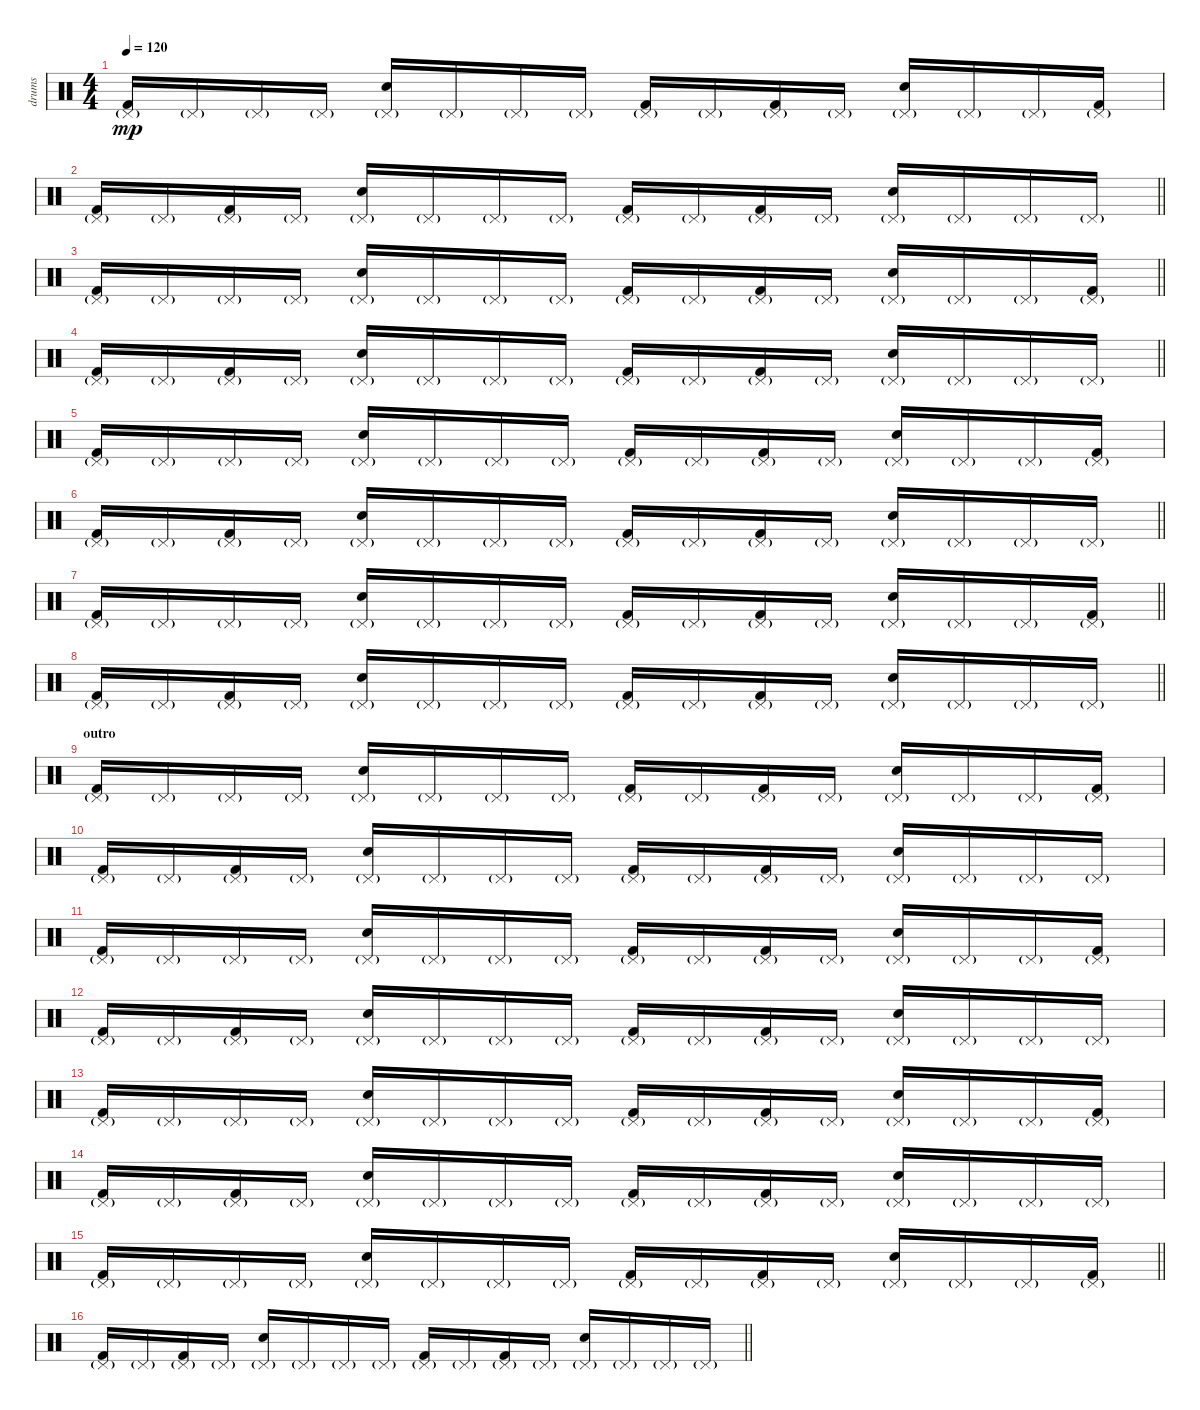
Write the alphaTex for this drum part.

\track ("drums" "drums") {instrument percussion}
\staff {score}
\articulation defaults
\ts (4 4)
\tempo 120
\clef neutral
\ks c
("Kick (hit) 2" "Pedal Hi-Hat (hit)"{g}).16{dy mp} "Pedal Hi-Hat (hit)"{g}.16 "Pedal Hi-Hat (hit)"{g}.16 "Pedal Hi-Hat (hit)"{g}.16 ("Hand Clap (hit)" "Pedal Hi-Hat (hit)"{g}).16 "Pedal Hi-Hat (hit)"{g}.16 "Pedal Hi-Hat (hit)"{g}.16 "Pedal Hi-Hat (hit)"{g}.16 ("Kick (hit) 2" "Pedal Hi-Hat (hit)"{g}).16 "Pedal Hi-Hat (hit)"{g}.16 ("Kick (hit) 2" "Pedal Hi-Hat (hit)"{g}).16 "Pedal Hi-Hat (hit)"{g}.16 ("Hand Clap (hit)" "Pedal Hi-Hat (hit)"{g}).16 "Pedal Hi-Hat (hit)"{g}.16 "Pedal Hi-Hat (hit)"{g}.16 ("Kick (hit) 2" "Pedal Hi-Hat (hit)"{g}).16 |
\barLineRight lightlight
("Kick (hit) 2" "Pedal Hi-Hat (hit)"{g}).16 "Pedal Hi-Hat (hit)"{g}.16 ("Kick (hit) 2" "Pedal Hi-Hat (hit)"{g}).16 "Pedal Hi-Hat (hit)"{g}.16 ("Hand Clap (hit)" "Pedal Hi-Hat (hit)"{g}).16 "Pedal Hi-Hat (hit)"{g}.16 "Pedal Hi-Hat (hit)"{g}.16 "Pedal Hi-Hat (hit)"{g}.16 ("Kick (hit) 2" "Pedal Hi-Hat (hit)"{g}).16 "Pedal Hi-Hat (hit)"{g}.16 ("Kick (hit) 2" "Pedal Hi-Hat (hit)"{g}).16 "Pedal Hi-Hat (hit)"{g}.16 ("Hand Clap (hit)" "Pedal Hi-Hat (hit)"{g}).16 "Pedal Hi-Hat (hit)"{g}.16 "Pedal Hi-Hat (hit)"{g}.16 "Pedal Hi-Hat (hit)"{g}.16 |
\barLineRight lightlight
("Kick (hit) 2" "Pedal Hi-Hat (hit)"{g}).16 "Pedal Hi-Hat (hit)"{g}.16 "Pedal Hi-Hat (hit)"{g}.16 "Pedal Hi-Hat (hit)"{g}.16 ("Hand Clap (hit)" "Pedal Hi-Hat (hit)"{g}).16 "Pedal Hi-Hat (hit)"{g}.16 "Pedal Hi-Hat (hit)"{g}.16 "Pedal Hi-Hat (hit)"{g}.16 ("Kick (hit) 2" "Pedal Hi-Hat (hit)"{g}).16 "Pedal Hi-Hat (hit)"{g}.16 ("Kick (hit) 2" "Pedal Hi-Hat (hit)"{g}).16 "Pedal Hi-Hat (hit)"{g}.16 ("Hand Clap (hit)" "Pedal Hi-Hat (hit)"{g}).16 "Pedal Hi-Hat (hit)"{g}.16 "Pedal Hi-Hat (hit)"{g}.16 ("Kick (hit) 2" "Pedal Hi-Hat (hit)"{g}).16 |
\barLineRight lightlight
("Kick (hit) 2" "Pedal Hi-Hat (hit)"{g}).16 "Pedal Hi-Hat (hit)"{g}.16 ("Kick (hit) 2" "Pedal Hi-Hat (hit)"{g}).16 "Pedal Hi-Hat (hit)"{g}.16 ("Hand Clap (hit)" "Pedal Hi-Hat (hit)"{g}).16 "Pedal Hi-Hat (hit)"{g}.16 "Pedal Hi-Hat (hit)"{g}.16 "Pedal Hi-Hat (hit)"{g}.16 ("Kick (hit) 2" "Pedal Hi-Hat (hit)"{g}).16 "Pedal Hi-Hat (hit)"{g}.16 ("Kick (hit) 2" "Pedal Hi-Hat (hit)"{g}).16 "Pedal Hi-Hat (hit)"{g}.16 ("Hand Clap (hit)" "Pedal Hi-Hat (hit)"{g}).16 "Pedal Hi-Hat (hit)"{g}.16 "Pedal Hi-Hat (hit)"{g}.16 "Pedal Hi-Hat (hit)"{g}.16 |
("Kick (hit) 2" "Pedal Hi-Hat (hit)"{g}).16 "Pedal Hi-Hat (hit)"{g}.16 "Pedal Hi-Hat (hit)"{g}.16 "Pedal Hi-Hat (hit)"{g}.16 ("Hand Clap (hit)" "Pedal Hi-Hat (hit)"{g}).16 "Pedal Hi-Hat (hit)"{g}.16 "Pedal Hi-Hat (hit)"{g}.16 "Pedal Hi-Hat (hit)"{g}.16 ("Kick (hit) 2" "Pedal Hi-Hat (hit)"{g}).16 "Pedal Hi-Hat (hit)"{g}.16 ("Kick (hit) 2" "Pedal Hi-Hat (hit)"{g}).16 "Pedal Hi-Hat (hit)"{g}.16 ("Hand Clap (hit)" "Pedal Hi-Hat (hit)"{g}).16 "Pedal Hi-Hat (hit)"{g}.16 "Pedal Hi-Hat (hit)"{g}.16 ("Kick (hit) 2" "Pedal Hi-Hat (hit)"{g}).16 |
\barLineRight lightlight
("Kick (hit) 2" "Pedal Hi-Hat (hit)"{g}).16 "Pedal Hi-Hat (hit)"{g}.16 ("Kick (hit) 2" "Pedal Hi-Hat (hit)"{g}).16 "Pedal Hi-Hat (hit)"{g}.16 ("Hand Clap (hit)" "Pedal Hi-Hat (hit)"{g}).16 "Pedal Hi-Hat (hit)"{g}.16 "Pedal Hi-Hat (hit)"{g}.16 "Pedal Hi-Hat (hit)"{g}.16 ("Kick (hit) 2" "Pedal Hi-Hat (hit)"{g}).16 "Pedal Hi-Hat (hit)"{g}.16 ("Kick (hit) 2" "Pedal Hi-Hat (hit)"{g}).16 "Pedal Hi-Hat (hit)"{g}.16 ("Hand Clap (hit)" "Pedal Hi-Hat (hit)"{g}).16 "Pedal Hi-Hat (hit)"{g}.16 "Pedal Hi-Hat (hit)"{g}.16 "Pedal Hi-Hat (hit)"{g}.16 |
\barLineRight lightlight
("Kick (hit) 2" "Pedal Hi-Hat (hit)"{g}).16 "Pedal Hi-Hat (hit)"{g}.16 "Pedal Hi-Hat (hit)"{g}.16 "Pedal Hi-Hat (hit)"{g}.16 ("Hand Clap (hit)" "Pedal Hi-Hat (hit)"{g}).16 "Pedal Hi-Hat (hit)"{g}.16 "Pedal Hi-Hat (hit)"{g}.16 "Pedal Hi-Hat (hit)"{g}.16 ("Kick (hit) 2" "Pedal Hi-Hat (hit)"{g}).16 "Pedal Hi-Hat (hit)"{g}.16 ("Kick (hit) 2" "Pedal Hi-Hat (hit)"{g}).16 "Pedal Hi-Hat (hit)"{g}.16 ("Hand Clap (hit)" "Pedal Hi-Hat (hit)"{g}).16 "Pedal Hi-Hat (hit)"{g}.16 "Pedal Hi-Hat (hit)"{g}.16 ("Kick (hit) 2" "Pedal Hi-Hat (hit)"{g}).16 |
\barLineRight lightlight
("Kick (hit) 2" "Pedal Hi-Hat (hit)"{g}).16 "Pedal Hi-Hat (hit)"{g}.16 ("Kick (hit) 2" "Pedal Hi-Hat (hit)"{g}).16 "Pedal Hi-Hat (hit)"{g}.16 ("Hand Clap (hit)" "Pedal Hi-Hat (hit)"{g}).16 "Pedal Hi-Hat (hit)"{g}.16 "Pedal Hi-Hat (hit)"{g}.16 "Pedal Hi-Hat (hit)"{g}.16 ("Kick (hit) 2" "Pedal Hi-Hat (hit)"{g}).16 "Pedal Hi-Hat (hit)"{g}.16 ("Kick (hit) 2" "Pedal Hi-Hat (hit)"{g}).16 "Pedal Hi-Hat (hit)"{g}.16 ("Hand Clap (hit)" "Pedal Hi-Hat (hit)"{g}).16 "Pedal Hi-Hat (hit)"{g}.16 "Pedal Hi-Hat (hit)"{g}.16 "Pedal Hi-Hat (hit)"{g}.16 |
\section ("" "outro")
("Kick (hit) 2" "Pedal Hi-Hat (hit)"{g}).16 "Pedal Hi-Hat (hit)"{g}.16 "Pedal Hi-Hat (hit)"{g}.16 "Pedal Hi-Hat (hit)"{g}.16 ("Hand Clap (hit)" "Pedal Hi-Hat (hit)"{g}).16 "Pedal Hi-Hat (hit)"{g}.16 "Pedal Hi-Hat (hit)"{g}.16 "Pedal Hi-Hat (hit)"{g}.16 ("Kick (hit) 2" "Pedal Hi-Hat (hit)"{g}).16 "Pedal Hi-Hat (hit)"{g}.16 ("Kick (hit) 2" "Pedal Hi-Hat (hit)"{g}).16 "Pedal Hi-Hat (hit)"{g}.16 ("Hand Clap (hit)" "Pedal Hi-Hat (hit)"{g}).16 "Pedal Hi-Hat (hit)"{g}.16 "Pedal Hi-Hat (hit)"{g}.16 ("Kick (hit) 2" "Pedal Hi-Hat (hit)"{g}).16 |
("Kick (hit) 2" "Pedal Hi-Hat (hit)"{g}).16 "Pedal Hi-Hat (hit)"{g}.16 ("Kick (hit) 2" "Pedal Hi-Hat (hit)"{g}).16 "Pedal Hi-Hat (hit)"{g}.16 ("Hand Clap (hit)" "Pedal Hi-Hat (hit)"{g}).16 "Pedal Hi-Hat (hit)"{g}.16 "Pedal Hi-Hat (hit)"{g}.16 "Pedal Hi-Hat (hit)"{g}.16 ("Kick (hit) 2" "Pedal Hi-Hat (hit)"{g}).16 "Pedal Hi-Hat (hit)"{g}.16 ("Kick (hit) 2" "Pedal Hi-Hat (hit)"{g}).16 "Pedal Hi-Hat (hit)"{g}.16 ("Hand Clap (hit)" "Pedal Hi-Hat (hit)"{g}).16 "Pedal Hi-Hat (hit)"{g}.16 "Pedal Hi-Hat (hit)"{g}.16 "Pedal Hi-Hat (hit)"{g}.16 |
("Kick (hit) 2" "Pedal Hi-Hat (hit)"{g}).16 "Pedal Hi-Hat (hit)"{g}.16 "Pedal Hi-Hat (hit)"{g}.16 "Pedal Hi-Hat (hit)"{g}.16 ("Hand Clap (hit)" "Pedal Hi-Hat (hit)"{g}).16 "Pedal Hi-Hat (hit)"{g}.16 "Pedal Hi-Hat (hit)"{g}.16 "Pedal Hi-Hat (hit)"{g}.16 ("Kick (hit) 2" "Pedal Hi-Hat (hit)"{g}).16 "Pedal Hi-Hat (hit)"{g}.16 ("Kick (hit) 2" "Pedal Hi-Hat (hit)"{g}).16 "Pedal Hi-Hat (hit)"{g}.16 ("Hand Clap (hit)" "Pedal Hi-Hat (hit)"{g}).16 "Pedal Hi-Hat (hit)"{g}.16 "Pedal Hi-Hat (hit)"{g}.16 ("Kick (hit) 2" "Pedal Hi-Hat (hit)"{g}).16 |
("Kick (hit) 2" "Pedal Hi-Hat (hit)"{g}).16 "Pedal Hi-Hat (hit)"{g}.16 ("Kick (hit) 2" "Pedal Hi-Hat (hit)"{g}).16 "Pedal Hi-Hat (hit)"{g}.16 ("Hand Clap (hit)" "Pedal Hi-Hat (hit)"{g}).16 "Pedal Hi-Hat (hit)"{g}.16 "Pedal Hi-Hat (hit)"{g}.16 "Pedal Hi-Hat (hit)"{g}.16 ("Kick (hit) 2" "Pedal Hi-Hat (hit)"{g}).16 "Pedal Hi-Hat (hit)"{g}.16 ("Kick (hit) 2" "Pedal Hi-Hat (hit)"{g}).16 "Pedal Hi-Hat (hit)"{g}.16 ("Hand Clap (hit)" "Pedal Hi-Hat (hit)"{g}).16 "Pedal Hi-Hat (hit)"{g}.16 "Pedal Hi-Hat (hit)"{g}.16 "Pedal Hi-Hat (hit)"{g}.16 |
("Kick (hit) 2" "Pedal Hi-Hat (hit)"{g}).16 "Pedal Hi-Hat (hit)"{g}.16 "Pedal Hi-Hat (hit)"{g}.16 "Pedal Hi-Hat (hit)"{g}.16 ("Hand Clap (hit)" "Pedal Hi-Hat (hit)"{g}).16 "Pedal Hi-Hat (hit)"{g}.16 "Pedal Hi-Hat (hit)"{g}.16 "Pedal Hi-Hat (hit)"{g}.16 ("Kick (hit) 2" "Pedal Hi-Hat (hit)"{g}).16 "Pedal Hi-Hat (hit)"{g}.16 ("Kick (hit) 2" "Pedal Hi-Hat (hit)"{g}).16 "Pedal Hi-Hat (hit)"{g}.16 ("Hand Clap (hit)" "Pedal Hi-Hat (hit)"{g}).16 "Pedal Hi-Hat (hit)"{g}.16 "Pedal Hi-Hat (hit)"{g}.16 ("Kick (hit) 2" "Pedal Hi-Hat (hit)"{g}).16 |
("Kick (hit) 2" "Pedal Hi-Hat (hit)"{g}).16 "Pedal Hi-Hat (hit)"{g}.16 ("Kick (hit) 2" "Pedal Hi-Hat (hit)"{g}).16 "Pedal Hi-Hat (hit)"{g}.16 ("Hand Clap (hit)" "Pedal Hi-Hat (hit)"{g}).16 "Pedal Hi-Hat (hit)"{g}.16 "Pedal Hi-Hat (hit)"{g}.16 "Pedal Hi-Hat (hit)"{g}.16 ("Kick (hit) 2" "Pedal Hi-Hat (hit)"{g}).16 "Pedal Hi-Hat (hit)"{g}.16 ("Kick (hit) 2" "Pedal Hi-Hat (hit)"{g}).16 "Pedal Hi-Hat (hit)"{g}.16 ("Hand Clap (hit)" "Pedal Hi-Hat (hit)"{g}).16 "Pedal Hi-Hat (hit)"{g}.16 "Pedal Hi-Hat (hit)"{g}.16 "Pedal Hi-Hat (hit)"{g}.16 |
\barLineRight lightlight
("Kick (hit) 2" "Pedal Hi-Hat (hit)"{g}).16 "Pedal Hi-Hat (hit)"{g}.16 "Pedal Hi-Hat (hit)"{g}.16 "Pedal Hi-Hat (hit)"{g}.16 ("Hand Clap (hit)" "Pedal Hi-Hat (hit)"{g}).16 "Pedal Hi-Hat (hit)"{g}.16 "Pedal Hi-Hat (hit)"{g}.16 "Pedal Hi-Hat (hit)"{g}.16 ("Kick (hit) 2" "Pedal Hi-Hat (hit)"{g}).16 "Pedal Hi-Hat (hit)"{g}.16 ("Kick (hit) 2" "Pedal Hi-Hat (hit)"{g}).16 "Pedal Hi-Hat (hit)"{g}.16 ("Hand Clap (hit)" "Pedal Hi-Hat (hit)"{g}).16 "Pedal Hi-Hat (hit)"{g}.16 "Pedal Hi-Hat (hit)"{g}.16 ("Kick (hit) 2" "Pedal Hi-Hat (hit)"{g}).16 |
\barLineRight lightlight
("Kick (hit) 2" "Pedal Hi-Hat (hit)"{g}).16 "Pedal Hi-Hat (hit)"{g}.16 ("Kick (hit) 2" "Pedal Hi-Hat (hit)"{g}).16 "Pedal Hi-Hat (hit)"{g}.16 ("Hand Clap (hit)" "Pedal Hi-Hat (hit)"{g}).16 "Pedal Hi-Hat (hit)"{g}.16 "Pedal Hi-Hat (hit)"{g}.16 "Pedal Hi-Hat (hit)"{g}.16 ("Kick (hit) 2" "Pedal Hi-Hat (hit)"{g}).16 "Pedal Hi-Hat (hit)"{g}.16 ("Kick (hit) 2" "Pedal Hi-Hat (hit)"{g}).16 "Pedal Hi-Hat (hit)"{g}.16 ("Hand Clap (hit)" "Pedal Hi-Hat (hit)"{g}).16 "Pedal Hi-Hat (hit)"{g}.16 "Pedal Hi-Hat (hit)"{g}.16 "Pedal Hi-Hat (hit)"{g}.16
